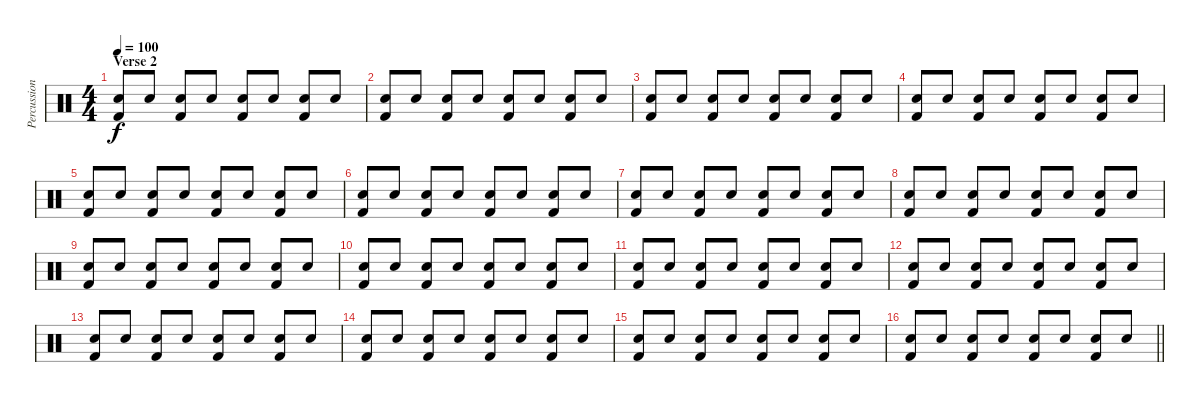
\track ("Percussion" "Percussion") {instrument percussion}
\staff {score}
\articulation defaults
\ts (4 4)
\section ("" "Verse 2")
\tempo 100
\clef neutral
\ks c
("Snare (hit) 2" "Kick (hit) 2").8{dy f} "Snare (hit) 2".8 ("Snare (hit) 2" "Kick (hit) 2").8 "Snare (hit) 2".8 ("Snare (hit) 2" "Kick (hit) 2").8 "Snare (hit) 2".8 ("Snare (hit) 2" "Kick (hit) 2").8 "Snare (hit) 2".8 |
("Snare (hit) 2" "Kick (hit) 2").8 "Snare (hit) 2".8 ("Snare (hit) 2" "Kick (hit) 2").8 "Snare (hit) 2".8 ("Snare (hit) 2" "Kick (hit) 2").8 "Snare (hit) 2".8 ("Snare (hit) 2" "Kick (hit) 2").8 "Snare (hit) 2".8 |
("Snare (hit) 2" "Kick (hit) 2").8 "Snare (hit) 2".8 ("Snare (hit) 2" "Kick (hit) 2").8 "Snare (hit) 2".8 ("Snare (hit) 2" "Kick (hit) 2").8 "Snare (hit) 2".8 ("Snare (hit) 2" "Kick (hit) 2").8 "Snare (hit) 2".8 |
("Snare (hit) 2" "Kick (hit) 2").8 "Snare (hit) 2".8 ("Snare (hit) 2" "Kick (hit) 2").8 "Snare (hit) 2".8 ("Snare (hit) 2" "Kick (hit) 2").8 "Snare (hit) 2".8 ("Snare (hit) 2" "Kick (hit) 2").8 "Snare (hit) 2".8 |
("Snare (hit) 2" "Kick (hit) 2").8 "Snare (hit) 2".8 ("Snare (hit) 2" "Kick (hit) 2").8 "Snare (hit) 2".8 ("Snare (hit) 2" "Kick (hit) 2").8 "Snare (hit) 2".8 ("Snare (hit) 2" "Kick (hit) 2").8 "Snare (hit) 2".8 |
("Snare (hit) 2" "Kick (hit) 2").8 "Snare (hit) 2".8 ("Snare (hit) 2" "Kick (hit) 2").8 "Snare (hit) 2".8 ("Snare (hit) 2" "Kick (hit) 2").8 "Snare (hit) 2".8 ("Snare (hit) 2" "Kick (hit) 2").8 "Snare (hit) 2".8 |
("Snare (hit) 2" "Kick (hit) 2").8 "Snare (hit) 2".8 ("Snare (hit) 2" "Kick (hit) 2").8 "Snare (hit) 2".8 ("Snare (hit) 2" "Kick (hit) 2").8 "Snare (hit) 2".8 ("Snare (hit) 2" "Kick (hit) 2").8 "Snare (hit) 2".8 |
("Snare (hit) 2" "Kick (hit) 2").8 "Snare (hit) 2".8 ("Snare (hit) 2" "Kick (hit) 2").8 "Snare (hit) 2".8 ("Snare (hit) 2" "Kick (hit) 2").8 "Snare (hit) 2".8 ("Snare (hit) 2" "Kick (hit) 2").8 "Snare (hit) 2".8 |
("Snare (hit) 2" "Kick (hit) 2").8 "Snare (hit) 2".8 ("Snare (hit) 2" "Kick (hit) 2").8 "Snare (hit) 2".8 ("Snare (hit) 2" "Kick (hit) 2").8 "Snare (hit) 2".8 ("Snare (hit) 2" "Kick (hit) 2").8 "Snare (hit) 2".8 |
("Snare (hit) 2" "Kick (hit) 2").8 "Snare (hit) 2".8 ("Snare (hit) 2" "Kick (hit) 2").8 "Snare (hit) 2".8 ("Snare (hit) 2" "Kick (hit) 2").8 "Snare (hit) 2".8 ("Snare (hit) 2" "Kick (hit) 2").8 "Snare (hit) 2".8 |
("Snare (hit) 2" "Kick (hit) 2").8 "Snare (hit) 2".8 ("Snare (hit) 2" "Kick (hit) 2").8 "Snare (hit) 2".8 ("Snare (hit) 2" "Kick (hit) 2").8 "Snare (hit) 2".8 ("Snare (hit) 2" "Kick (hit) 2").8 "Snare (hit) 2".8 |
("Snare (hit) 2" "Kick (hit) 2").8 "Snare (hit) 2".8 ("Snare (hit) 2" "Kick (hit) 2").8 "Snare (hit) 2".8 ("Snare (hit) 2" "Kick (hit) 2").8 "Snare (hit) 2".8 ("Snare (hit) 2" "Kick (hit) 2").8 "Snare (hit) 2".8 |
("Snare (hit) 2" "Kick (hit) 2").8 "Snare (hit) 2".8 ("Snare (hit) 2" "Kick (hit) 2").8 "Snare (hit) 2".8 ("Snare (hit) 2" "Kick (hit) 2").8 "Snare (hit) 2".8 ("Snare (hit) 2" "Kick (hit) 2").8 "Snare (hit) 2".8 |
("Snare (hit) 2" "Kick (hit) 2").8 "Snare (hit) 2".8 ("Snare (hit) 2" "Kick (hit) 2").8 "Snare (hit) 2".8 ("Snare (hit) 2" "Kick (hit) 2").8 "Snare (hit) 2".8 ("Snare (hit) 2" "Kick (hit) 2").8 "Snare (hit) 2".8 |
("Snare (hit) 2" "Kick (hit) 2").8 "Snare (hit) 2".8 ("Snare (hit) 2" "Kick (hit) 2").8 "Snare (hit) 2".8 ("Snare (hit) 2" "Kick (hit) 2").8 "Snare (hit) 2".8 ("Snare (hit) 2" "Kick (hit) 2").8 "Snare (hit) 2".8 |
\barLineRight lightlight
("Snare (hit) 2" "Kick (hit) 2").8 "Snare (hit) 2".8 ("Snare (hit) 2" "Kick (hit) 2").8 "Snare (hit) 2".8 ("Snare (hit) 2" "Kick (hit) 2").8 "Snare (hit) 2".8 ("Snare (hit) 2" "Kick (hit) 2").8 "Snare (hit) 2".8
